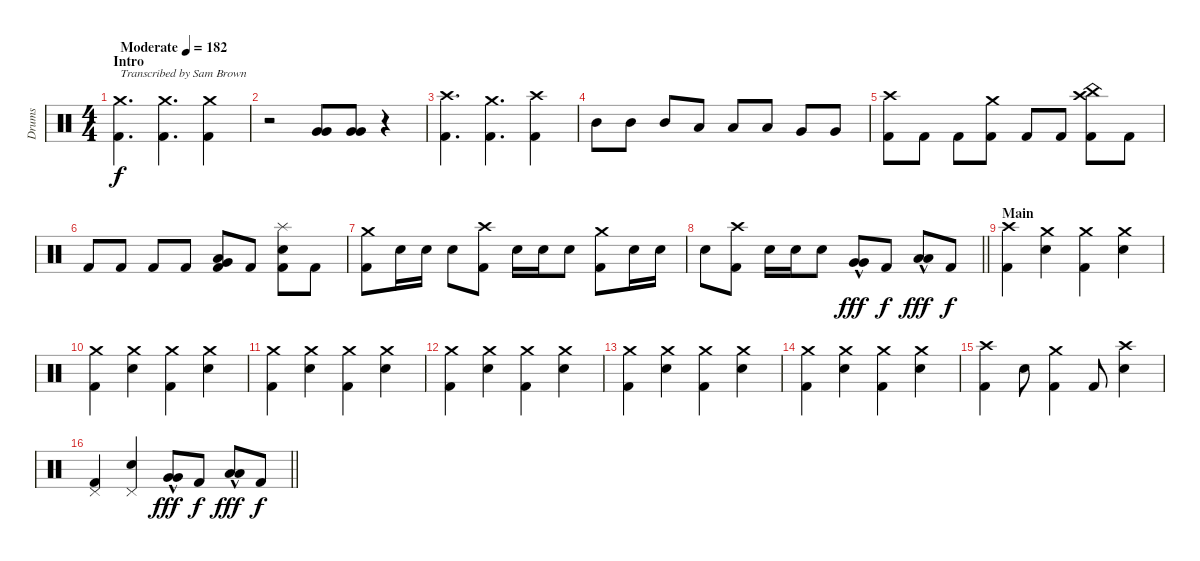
\track ("Drums" "Drums") {instrument percussion}
\staff {score}
\articulation defaults
\ts (4 4)
\section ("" "Intro")
\tempo (182 "Moderate")
\clef neutral
\ks c
("Kick (hit) 2" "Crash medium (hit)").4{d txt "Transcribed by Sam Brown" dy f} ("Kick (hit) 2" "Crash medium (hit)").4{d} ("Kick (hit) 2" "Crash medium (hit)").4 |
r.2 ("Very Low Tom (hit)" "Very Low Tom (hit)").8 ("Very Low Tom (hit)" "Very Low Tom (hit)").8 r.4 |
("Kick (hit) 2" "Crash high (hit)").4{d} ("Kick (hit) 2" "Crash medium (hit)").4{d} ("Kick (hit) 2" "Crash high (hit)").4 |
"Mid Tom (hit)".8 "Mid Tom (hit)".8 "Mid Tom (hit)".8 "Low Tom (hit)".8 "Low Tom (hit)".8 "Low Tom (hit)".8 "Very Low Tom (hit)".8 "Very Low Tom (hit)".8 |
("Kick (hit) 2" "Crash high (hit)").8 "Kick (hit) 2".8 "Kick (hit) 2".8 ("Kick (hit) 2" "Crash medium (hit)").8 "Kick (hit) 2".8 "Kick (hit) 2".8 ("Kick (hit) 2" "Crash high (hit)" "China (hit)").8 "Kick (hit) 2".8 |
"Kick (hit) 2".8 "Kick (hit) 2".8 "Kick (hit) 2".8 "Kick (hit) 2".8 ("Kick (hit) 2" "Very Low Tom (hit)" "Low Floor Tom (hit)").8 "Kick (hit) 2".8 ("Kick (hit) 2" "Snare (hit) 2" "Splash (hit)").8 "Kick (hit) 2".8 |
("Kick (hit) 2" "Crash medium (hit)").8 "Snare (hit) 2".16 "Snare (hit) 2".16 "Snare (hit) 2".8 ("Kick (hit) 2" "Crash high (hit)").8 "Snare (hit) 2".16 "Snare (hit) 2".16 "Snare (hit) 2".8 ("Kick (hit) 2" "Crash medium (hit)").8 "Snare (hit) 2".16 "Snare (hit) 2".16 |
\barLineRight lightlight "Snare (hit) 2".8
("Kick (hit) 2" "Crash high (hit)").8 "Snare (hit) 2".16 "Snare (hit) 2".16 "Snare (hit) 2".8 ("Very Low Tom (hit)"{hac} "Very Low Tom (hit)").8{dy fff} "Kick (hit) 2".8{dy f} ("Low Floor Tom (hit)"{hac} "Low Floor Tom (hit)").8{dy fff} "Kick (hit) 2".8{dy f} |
\section ("" "Main")
("Kick (hit) 2" "Crash high (hit)").4 ("Snare (hit) 2" "Crash medium (hit)").4 ("Kick (hit) 2" "Crash medium (hit)").4 ("Snare (hit) 2" "Crash medium (hit)").4 |
("Kick (hit) 2" "Crash medium (hit)").4 ("Snare (hit) 2" "Crash medium (hit)").4 ("Kick (hit) 2" "Crash medium (hit)").4 ("Snare (hit) 2" "Crash medium (hit)").4 |
("Kick (hit) 2" "Crash medium (hit)").4 ("Snare (hit) 2" "Crash medium (hit)").4 ("Kick (hit) 2" "Crash medium (hit)").4 ("Snare (hit) 2" "Crash medium (hit)").4 |
("Kick (hit) 2" "Crash medium (hit)").4 ("Snare (hit) 2" "Crash medium (hit)").4 ("Kick (hit) 2" "Crash medium (hit)").4 ("Snare (hit) 2" "Crash medium (hit)").4 |
("Kick (hit) 2" "Crash medium (hit)").4 ("Snare (hit) 2" "Crash medium (hit)").4 ("Kick (hit) 2" "Crash medium (hit)").4 ("Snare (hit) 2" "Crash medium (hit)").4 |
("Kick (hit) 2" "Crash medium (hit)").4 ("Snare (hit) 2" "Crash medium (hit)").4 ("Kick (hit) 2" "Crash medium (hit)").4 ("Snare (hit) 2" "Crash medium (hit)").4 |
("Kick (hit) 2" "Crash high (hit)").4 "Snare (hit) 2".8 ("Kick (hit) 2" "Crash medium (hit)").4 "Kick (hit) 2".8 ("Snare (hit) 2" "Crash high (hit)").4 |
\barLineRight lightlight
("Kick (hit) 2" "Pedal Hi-Hat (hit)").4 ("Snare (hit) 2" "Pedal Hi-Hat (hit)").4 ("Very Low Tom (hit)"{hac} "Very Low Tom (hit)"{hac}).8{dy fff} "Kick (hit) 2".8{dy f} ("Low Floor Tom (hit)"{hac} "Low Floor Tom (hit)"{hac}).8{dy fff} "Kick (hit) 2".8{dy f}
